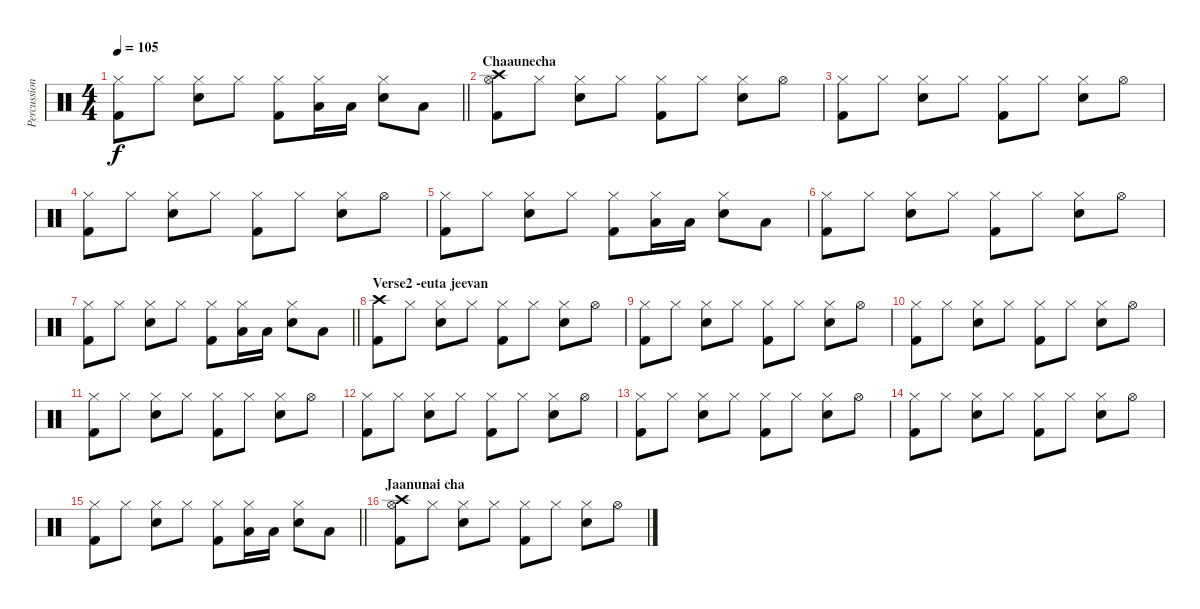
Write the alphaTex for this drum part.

\track ("Percussion" "Percussion") {instrument percussion}
\staff {score}
\articulation defaults
\ts (4 4)
\tempo 105
\clef neutral
\barLineRight lightlight
\ks c
("Kick (hit) 2" "Hi-Hat (closed)").8{dy f} "Hi-Hat (closed)".8 ("Snare (hit) 2" "Hi-Hat (closed)").8 "Hi-Hat (closed)".8 ("Kick (hit) 2" "Hi-Hat (closed)").8 ("Low Tom (hit)" "Hi-Hat (closed)").16 "Low Tom (hit)".16 ("Snare (hit) 2" "Hi-Hat (closed)").8 "Low Tom (hit)".8 |
\section ("" "Chaaunecha")
("Hi-Hat (open)" "Kick (hit) 2" "Crash high (hit)").8 "Hi-Hat (closed)".8 ("Snare (hit) 2" "Hi-Hat (closed)").8 "Hi-Hat (closed)".8 ("Kick (hit) 2" "Hi-Hat (closed)").8 "Hi-Hat (closed)".8 ("Snare (hit) 2" "Hi-Hat (closed)").8 "Hi-Hat (open)".8 |
("Kick (hit) 2" "Hi-Hat (closed)").8 "Hi-Hat (closed)".8 ("Snare (hit) 2" "Hi-Hat (closed)").8 "Hi-Hat (closed)".8 ("Kick (hit) 2" "Hi-Hat (closed)").8 "Hi-Hat (closed)".8 ("Snare (hit) 2" "Hi-Hat (closed)").8 "Hi-Hat (open)".8 |
("Kick (hit) 2" "Hi-Hat (closed)").8 "Hi-Hat (closed)".8 ("Snare (hit) 2" "Hi-Hat (closed)").8 "Hi-Hat (closed)".8 ("Kick (hit) 2" "Hi-Hat (closed)").8 "Hi-Hat (closed)".8 ("Snare (hit) 2" "Hi-Hat (closed)").8 "Hi-Hat (open)".8 |
("Kick (hit) 2" "Hi-Hat (closed)").8 "Hi-Hat (closed)".8 ("Snare (hit) 2" "Hi-Hat (closed)").8 "Hi-Hat (closed)".8 ("Kick (hit) 2" "Hi-Hat (closed)").8 ("Low Tom (hit)" "Hi-Hat (closed)").16 "Low Tom (hit)".16 ("Snare (hit) 2" "Hi-Hat (closed)").8 "Low Tom (hit)".8 |
("Kick (hit) 2" "Hi-Hat (closed)").8 "Hi-Hat (closed)".8 ("Snare (hit) 2" "Hi-Hat (closed)").8 "Hi-Hat (closed)".8 ("Kick (hit) 2" "Hi-Hat (closed)").8 "Hi-Hat (closed)".8 ("Snare (hit) 2" "Hi-Hat (closed)").8 "Hi-Hat (open)".8 |
\barLineRight lightlight
("Kick (hit) 2" "Hi-Hat (closed)").8 "Hi-Hat (closed)".8 ("Snare (hit) 2" "Hi-Hat (closed)").8 "Hi-Hat (closed)".8 ("Kick (hit) 2" "Hi-Hat (closed)").8 ("Low Tom (hit)" "Hi-Hat (closed)").16 "Low Tom (hit)".16 ("Snare (hit) 2" "Hi-Hat (closed)").8 "Low Tom (hit)".8 |
\section ("" "Verse2 -euta jeevan")
("Kick (hit) 2" "Crash high (hit)").8 "Hi-Hat (closed)".8 ("Snare (hit) 2" "Hi-Hat (closed)").8 "Hi-Hat (closed)".8 ("Kick (hit) 2" "Hi-Hat (closed)").8 "Hi-Hat (closed)".8 ("Snare (hit) 2" "Hi-Hat (closed)").8 "Hi-Hat (open)".8 |
("Kick (hit) 2" "Hi-Hat (closed)").8 "Hi-Hat (closed)".8 ("Snare (hit) 2" "Hi-Hat (closed)").8 "Hi-Hat (closed)".8 ("Kick (hit) 2" "Hi-Hat (closed)").8 "Hi-Hat (closed)".8 ("Snare (hit) 2" "Hi-Hat (closed)").8 "Hi-Hat (open)".8 |
("Kick (hit) 2" "Hi-Hat (closed)").8 "Hi-Hat (closed)".8 ("Snare (hit) 2" "Hi-Hat (closed)").8 "Hi-Hat (closed)".8 ("Kick (hit) 2" "Hi-Hat (closed)").8 "Hi-Hat (closed)".8 ("Snare (hit) 2" "Hi-Hat (closed)").8 "Hi-Hat (open)".8 |
("Kick (hit) 2" "Hi-Hat (closed)").8 "Hi-Hat (closed)".8 ("Snare (hit) 2" "Hi-Hat (closed)").8 "Hi-Hat (closed)".8 ("Kick (hit) 2" "Hi-Hat (closed)").8 "Hi-Hat (closed)".8 ("Snare (hit) 2" "Hi-Hat (closed)").8 "Hi-Hat (open)".8 |
("Kick (hit) 2" "Hi-Hat (closed)").8 "Hi-Hat (closed)".8 ("Snare (hit) 2" "Hi-Hat (closed)").8 "Hi-Hat (closed)".8 ("Kick (hit) 2" "Hi-Hat (closed)").8 "Hi-Hat (closed)".8 ("Snare (hit) 2" "Hi-Hat (closed)").8 "Hi-Hat (open)".8 |
("Kick (hit) 2" "Hi-Hat (closed)").8 "Hi-Hat (closed)".8 ("Snare (hit) 2" "Hi-Hat (closed)").8 "Hi-Hat (closed)".8 ("Kick (hit) 2" "Hi-Hat (closed)").8 "Hi-Hat (closed)".8 ("Snare (hit) 2" "Hi-Hat (closed)").8 "Hi-Hat (open)".8 |
("Kick (hit) 2" "Hi-Hat (closed)").8 "Hi-Hat (closed)".8 ("Snare (hit) 2" "Hi-Hat (closed)").8 "Hi-Hat (closed)".8 ("Kick (hit) 2" "Hi-Hat (closed)").8 "Hi-Hat (closed)".8 ("Snare (hit) 2" "Hi-Hat (closed)").8 "Hi-Hat (open)".8 |
\barLineRight lightlight
("Kick (hit) 2" "Hi-Hat (closed)").8 "Hi-Hat (closed)".8 ("Snare (hit) 2" "Hi-Hat (closed)").8 "Hi-Hat (closed)".8 ("Kick (hit) 2" "Hi-Hat (closed)").8 ("Low Tom (hit)" "Hi-Hat (closed)").16 "Low Tom (hit)".16 ("Snare (hit) 2" "Hi-Hat (closed)").8 "Low Tom (hit)".8 |
\section ("" "Jaanunai cha")
("Hi-Hat (open)" "Kick (hit) 2" "Crash high (hit)").8 "Hi-Hat (closed)".8 ("Snare (hit) 2" "Hi-Hat (closed)").8 "Hi-Hat (closed)".8 ("Kick (hit) 2" "Hi-Hat (closed)").8 "Hi-Hat (closed)".8 ("Snare (hit) 2" "Hi-Hat (closed)").8 "Hi-Hat (open)".8
